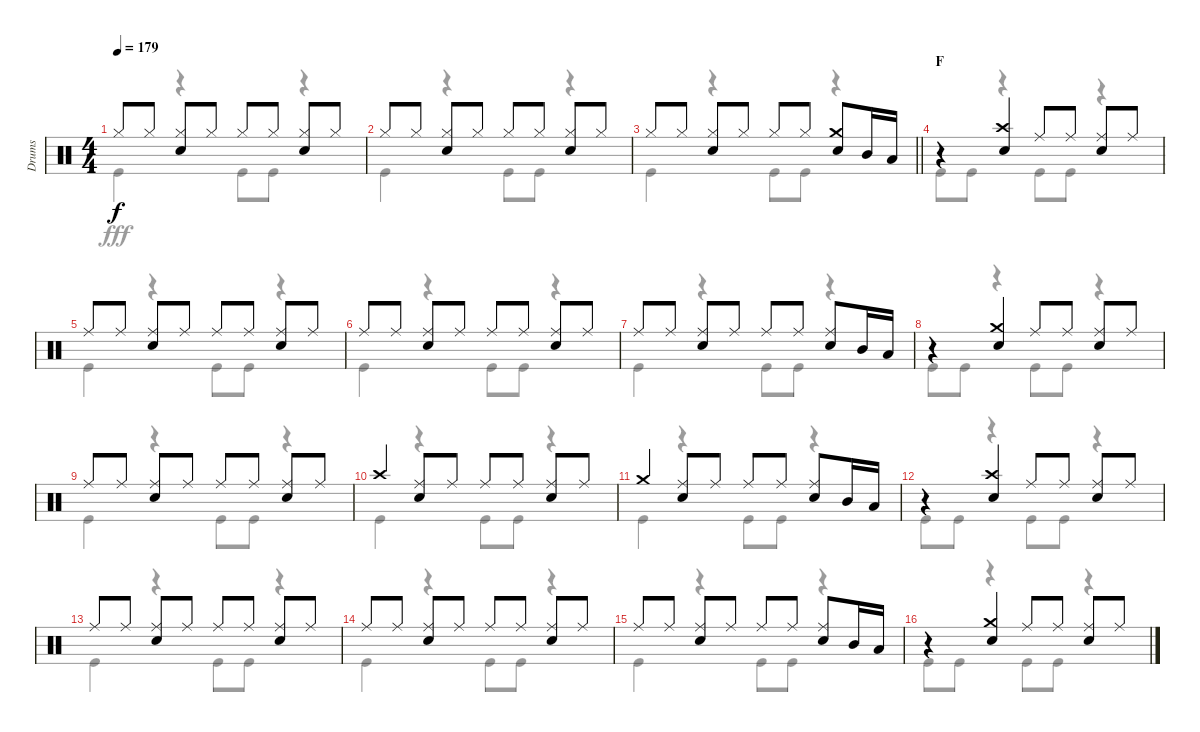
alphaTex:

\track ("Drums" "Drums") {instrument percussion}
\staff {score}
\articulation defaults
\voice
\ts (4 4)
\tempo 179
\clef neutral
\ks c "Hi-Hat (closed)".8{dy f} "Hi-Hat (closed)".8
("Snare (hit) 2" "Hi-Hat (closed)").8 "Hi-Hat (closed)".8 "Hi-Hat (closed)".8 "Hi-Hat (closed)".8 ("Hi-Hat (closed)" "Snare (hit) 2").8 "Hi-Hat (closed)".8 |
"Hi-Hat (closed)".8 "Hi-Hat (closed)".8 ("Snare (hit) 2" "Hi-Hat (closed)").8 "Hi-Hat (closed)".8 "Hi-Hat (closed)".8 "Hi-Hat (closed)".8 ("Hi-Hat (closed)" "Snare (hit) 2").8 "Hi-Hat (closed)".8 |
\barLineRight lightlight "Hi-Hat (closed)".8 "Hi-Hat (closed)".8
("Snare (hit) 2" "Hi-Hat (closed)").8 "Hi-Hat (closed)".8 "Hi-Hat (closed)".8 "Hi-Hat (closed)".8 ("Crash medium (hit)" "Snare (hit) 2").8 "Mid Tom (hit)".16 "Low Tom (hit)".16 |
\section ("" "F")
r.4 ("Crash high (hit)" "Snare (hit) 2").4 "Ride (middle)".8 "Ride (middle)".8 ("Ride (middle)" "Snare (hit) 2").8 "Ride (middle)".8 |
"Ride (middle)".8 "Ride (middle)".8 ("Ride (middle)" "Snare (hit) 2").8 "Ride (middle)".8 "Ride (middle)".8 "Ride (middle)".8 ("Ride (middle)" "Snare (hit) 2").8 "Ride (middle)".8 |
"Ride (middle)".8 "Ride (middle)".8 ("Ride (middle)" "Snare (hit) 2").8 "Ride (middle)".8 "Ride (middle)".8 "Ride (middle)".8 ("Ride (middle)" "Snare (hit) 2").8 "Ride (middle)".8 |
"Ride (middle)".8 "Ride (middle)".8 ("Ride (middle)" "Snare (hit) 2").8 "Ride (middle)".8 "Ride (middle)".8 "Ride (middle)".8 ("Ride (middle)" "Snare (hit) 2").8 "Mid Tom (hit)".16 "Low Tom (hit)".16 |
r.4 ("Crash medium (hit)" "Snare (hit) 2").4 "Ride (middle)".8 "Ride (middle)".8 ("Ride (middle)" "Snare (hit) 2").8 "Ride (middle)".8 |
"Ride (middle)".8 "Ride (middle)".8 ("Ride (middle)" "Snare (hit) 2").8 "Ride (middle)".8 "Ride (middle)".8 "Ride (middle)".8 ("Ride (middle)" "Snare (hit) 2").8 "Ride (middle)".8 |
"Crash high (hit)".4 ("Ride (middle)" "Snare (hit) 2").8 "Ride (middle)".8 "Ride (middle)".8 "Ride (middle)".8 ("Ride (middle)" "Snare (hit) 2").8 "Ride (middle)".8 |
"Crash medium (hit)".4 ("Ride (middle)" "Snare (hit) 2").8 "Ride (middle)".8 "Ride (middle)".8 "Ride (middle)".8 ("Ride (middle)" "Snare (hit) 2").8 "Mid Tom (hit)".16 "Low Tom (hit)".16 |
r.4 ("Crash high (hit)" "Snare (hit) 2").4 "Ride (middle)".8 "Ride (middle)".8 ("Ride (middle)" "Snare (hit) 2").8 "Ride (middle)".8 |
"Ride (middle)".8 "Ride (middle)".8 ("Ride (middle)" "Snare (hit) 2").8 "Ride (middle)".8 "Ride (middle)".8 "Ride (middle)".8 ("Ride (middle)" "Snare (hit) 2").8 "Ride (middle)".8 |
"Ride (middle)".8 "Ride (middle)".8 ("Ride (middle)" "Snare (hit) 2").8 "Ride (middle)".8 "Ride (middle)".8 "Ride (middle)".8 ("Ride (middle)" "Snare (hit) 2").8 "Ride (middle)".8 |
"Ride (middle)".8 "Ride (middle)".8 ("Ride (middle)" "Snare (hit) 2").8 "Ride (middle)".8 "Ride (middle)".8 "Ride (middle)".8 ("Ride (middle)" "Snare (hit) 2").8 "Mid Tom (hit)".16 "Low Tom (hit)".16 |
r.4 ("Crash medium (hit)" "Snare (hit) 2").4 "Ride (middle)".8 "Ride (middle)".8 ("Ride (middle)" "Snare (hit) 2").8 "Ride (middle)".8
\voice
\clef neutral
\ottava regular
\simile none
\ks c "Kick (hit)".4{dy fff}
r.4 "Kick (hit)".8 "Kick (hit)".8 r.4 |
"Kick (hit)".4 r.4 "Kick (hit)".8 "Kick (hit)".8 r.4 |
\barLineRight lightlight "Kick (hit)".4
r.4 "Kick (hit)".8 "Kick (hit)".8 r.4 |
"Kick (hit)".8 "Kick (hit)".8 r.4 "Kick (hit)".8 "Kick (hit)".8 r.4 |
"Kick (hit)".4 r.4 "Kick (hit)".8 "Kick (hit)".8 r.4 |
"Kick (hit)".4 r.4 "Kick (hit)".8 "Kick (hit)".8 r.4 |
"Kick (hit)".4 r.4 "Kick (hit)".8 "Kick (hit)".8 r.4 |
"Kick (hit)".8 "Kick (hit)".8 r.4 "Kick (hit)".8 "Kick (hit)".8 r.4 |
"Kick (hit)".4 r.4 "Kick (hit)".8 "Kick (hit)".8 r.4 |
"Kick (hit)".4 r.4 "Kick (hit)".8 "Kick (hit)".8 r.4 |
"Kick (hit)".4 r.4 "Kick (hit)".8 "Kick (hit)".8 r.4 |
"Kick (hit)".8 "Kick (hit)".8 r.4 "Kick (hit)".8 "Kick (hit)".8 r.4 |
"Kick (hit)".4 r.4 "Kick (hit)".8 "Kick (hit)".8 r.4 |
"Kick (hit)".4 r.4 "Kick (hit)".8 "Kick (hit)".8 r.4 |
"Kick (hit)".4 r.4 "Kick (hit)".8 "Kick (hit)".8 r.4 |
"Kick (hit)".8 "Kick (hit)".8 r.4 "Kick (hit)".8 "Kick (hit)".8 r.4
